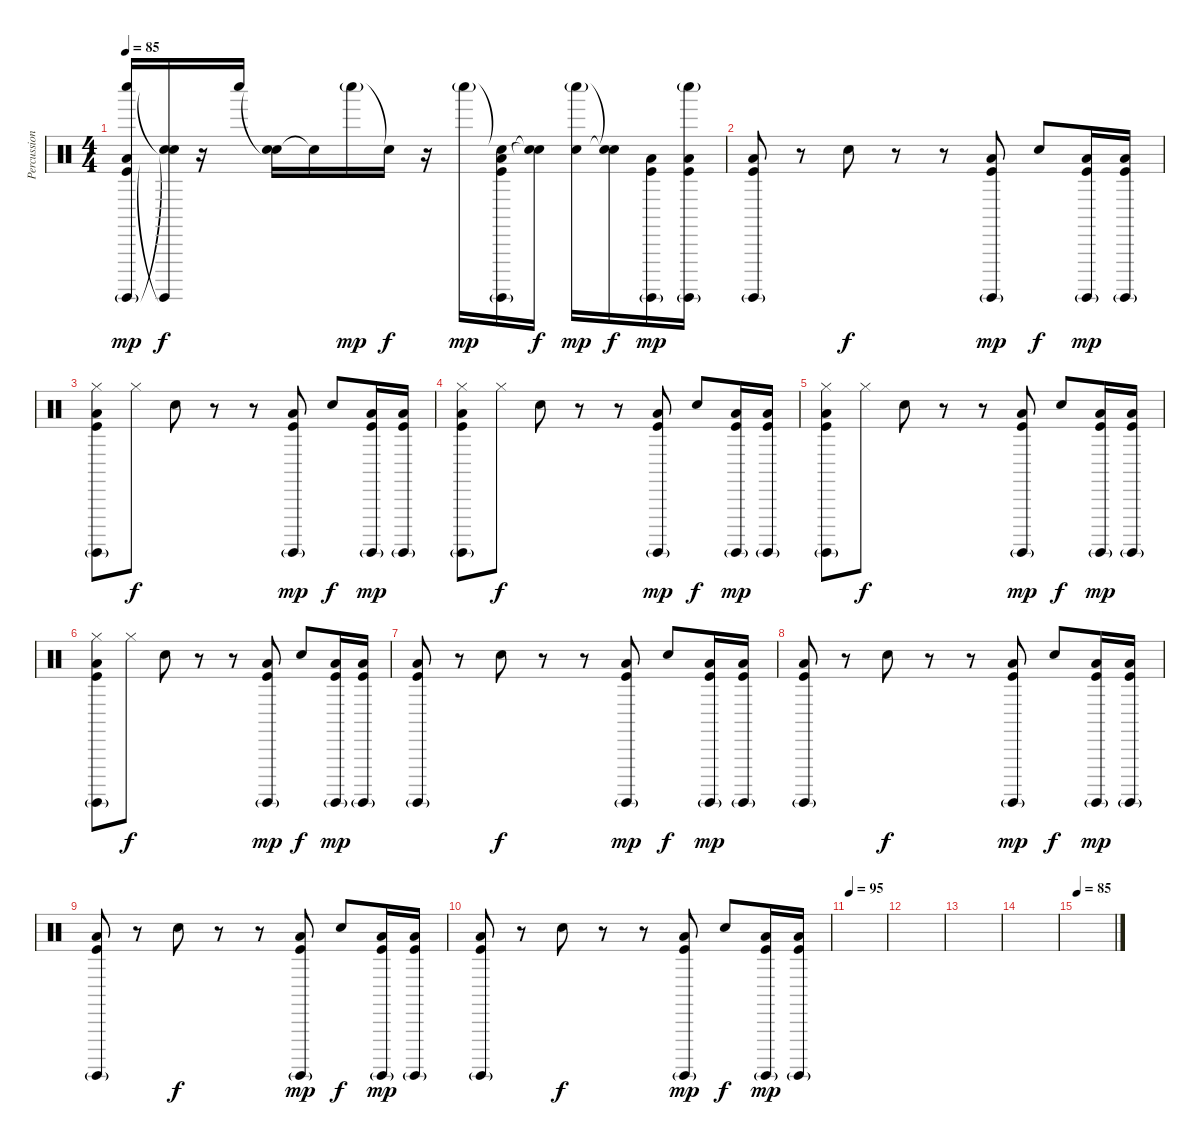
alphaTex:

\track ("Percussion" "Percussion") {instrument percussion}
\staff {score}
\articulation defaults
\ts (4 4)
\tempo 85
\clef neutral
\ks c
("Whistle low (hit)" "Low Floor Tom (hit)" "Surdo (hit)"{g} "Kick (hit)").16{dy mp} ("Snare (hit)"{t} "Surdo (hit)"{t} "Snare (hit)"{t}).16{dy f} r.16 "Whistle low (hit)".16 ("Snare (hit)"{t} "Snare (hit) 2").16 "Snare (hit)"{t}.16 "Whistle low (hit)"{g}.16{dy mp} "Snare (hit)"{t}.16{dy f} r.16 "Whistle low (hit)"{g}.16{dy mp} ("Snare (hit)"{t} "Low Floor Tom (hit)" "Surdo (hit)"{g} "Kick (hit)").16 ("Snare (hit)"{t} "Snare (hit)"{t}).16{dy f} ("Whistle low (hit)"{g} "Snare (hit) 2").16{dy mp} ("Snare (hit)"{t} "Snare (hit)"{t}).16{dy f} ("Surdo (hit)"{g} "Low Floor Tom (hit)" "Kick (hit)").16{dy mp} ("Whistle low (hit)"{g} "Surdo (hit)"{g} "Low Floor Tom (hit)" "Kick (hit)").16 |
("Low Floor Tom (hit)" "Surdo (hit)"{g} "Kick (hit)").8 r.8 "Snare (hit) 2".8{dy f} r.8 r.8 ("Low Floor Tom (hit)" "Surdo (hit)"{g} "Kick (hit)").8{dy mp} "Snare (hit) 2".8{dy f} ("Surdo (hit)"{g} "Low Floor Tom (hit)" "Kick (hit)").16{dy mp} ("Surdo (hit)"{g} "Low Floor Tom (hit)" "Kick (hit)").16 |
("Hi-Hat (closed)" "Low Floor Tom (hit)" "Surdo (hit)"{g} "Kick (hit)").8 "Hi-Hat (closed)".8{dy f} "Snare (hit) 2".8 r.8 r.8 ("Low Floor Tom (hit)" "Surdo (hit)"{g} "Kick (hit)").8{dy mp} "Snare (hit) 2".8{dy f} ("Surdo (hit)"{g} "Low Floor Tom (hit)" "Kick (hit)").16{dy mp} ("Surdo (hit)"{g} "Low Floor Tom (hit)" "Kick (hit)").16 |
("Hi-Hat (closed)" "Low Floor Tom (hit)" "Surdo (hit)"{g} "Kick (hit)").8 "Hi-Hat (closed)".8{dy f} "Snare (hit) 2".8 r.8 r.8 ("Low Floor Tom (hit)" "Surdo (hit)"{g} "Kick (hit)").8{dy mp} "Snare (hit) 2".8{dy f} ("Surdo (hit)"{g} "Low Floor Tom (hit)" "Kick (hit)").16{dy mp} ("Surdo (hit)"{g} "Low Floor Tom (hit)" "Kick (hit)").16 |
("Hi-Hat (closed)" "Low Floor Tom (hit)" "Surdo (hit)"{g} "Kick (hit)").8 "Hi-Hat (closed)".8{dy f} "Snare (hit) 2".8 r.8 r.8 ("Low Floor Tom (hit)" "Surdo (hit)"{g} "Kick (hit)").8{dy mp} "Snare (hit) 2".8{dy f} ("Surdo (hit)"{g} "Low Floor Tom (hit)" "Kick (hit)").16{dy mp} ("Surdo (hit)"{g} "Low Floor Tom (hit)" "Kick (hit)").16 |
("Hi-Hat (closed)" "Low Floor Tom (hit)" "Surdo (hit)"{g} "Kick (hit)").8 "Hi-Hat (closed)".8{dy f} "Snare (hit) 2".8 r.8 r.8 ("Low Floor Tom (hit)" "Surdo (hit)"{g} "Kick (hit)").8{dy mp} "Snare (hit) 2".8{dy f} ("Surdo (hit)"{g} "Low Floor Tom (hit)" "Kick (hit)").16{dy mp} ("Surdo (hit)"{g} "Low Floor Tom (hit)" "Kick (hit)").16 |
("Low Floor Tom (hit)" "Surdo (hit)"{g} "Kick (hit)").8 r.8 "Snare (hit) 2".8{dy f} r.8 r.8 ("Low Floor Tom (hit)" "Surdo (hit)"{g} "Kick (hit)").8{dy mp} "Snare (hit) 2".8{dy f} ("Surdo (hit)"{g} "Low Floor Tom (hit)" "Kick (hit)").16{dy mp} ("Surdo (hit)"{g} "Low Floor Tom (hit)" "Kick (hit)").16 |
("Low Floor Tom (hit)" "Surdo (hit)"{g} "Kick (hit)").8 r.8 "Snare (hit) 2".8{dy f} r.8 r.8 ("Low Floor Tom (hit)" "Surdo (hit)"{g} "Kick (hit)").8{dy mp} "Snare (hit) 2".8{dy f} ("Surdo (hit)"{g} "Low Floor Tom (hit)" "Kick (hit)").16{dy mp} ("Surdo (hit)"{g} "Low Floor Tom (hit)" "Kick (hit)").16 |
("Low Floor Tom (hit)" "Surdo (hit)"{g} "Kick (hit)").8 r.8 "Snare (hit) 2".8{dy f} r.8 r.8 ("Low Floor Tom (hit)" "Surdo (hit)"{g} "Kick (hit)").8{dy mp} "Snare (hit) 2".8{dy f} ("Surdo (hit)"{g} "Low Floor Tom (hit)" "Kick (hit)").16{dy mp} ("Surdo (hit)"{g} "Low Floor Tom (hit)" "Kick (hit)").16 |
("Low Floor Tom (hit)" "Surdo (hit)"{g} "Kick (hit)").8 r.8 "Snare (hit) 2".8{dy f} r.8 r.8 ("Low Floor Tom (hit)" "Surdo (hit)"{g} "Kick (hit)").8{dy mp} "Snare (hit) 2".8{dy f} ("Surdo (hit)"{g} "Low Floor Tom (hit)" "Kick (hit)").16{dy mp} ("Surdo (hit)"{g} "Low Floor Tom (hit)" "Kick (hit)").16 |
\tempo 95
|
|
|
|
\tempo 85
